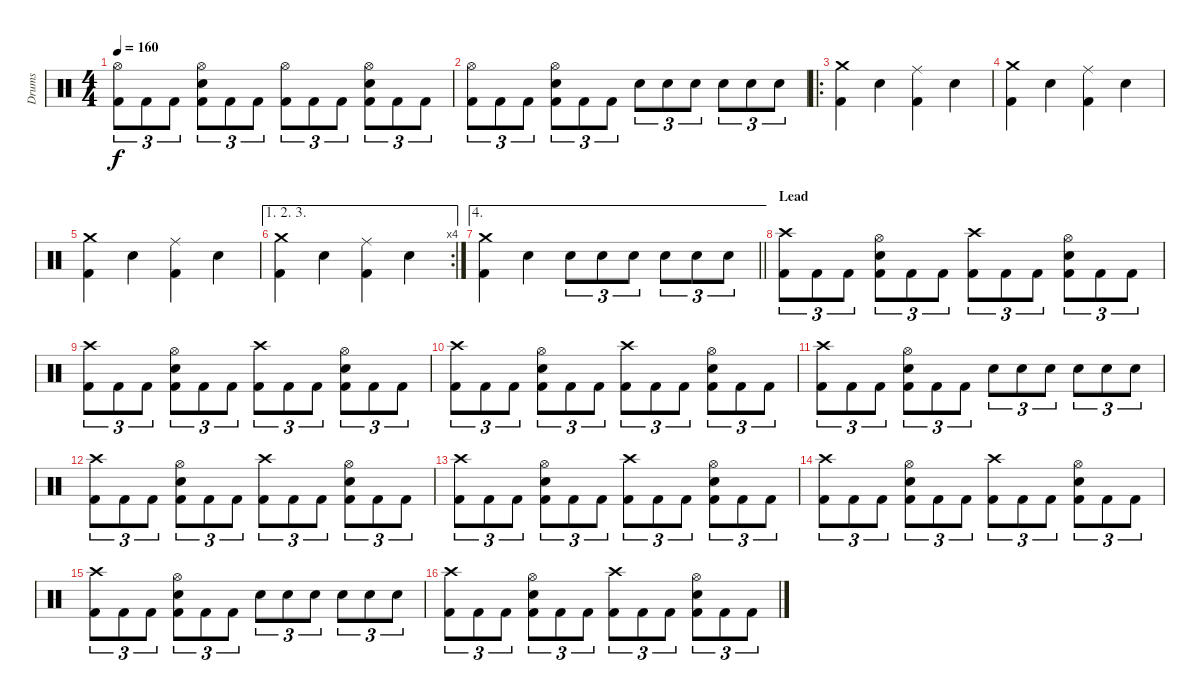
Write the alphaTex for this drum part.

\track ("Drums" "Drums") {instrument percussion}
\staff {score}
\articulation defaults
\ts (4 4)
\tempo 160
\clef neutral
\ks c
("Hi-Hat (open)" "Kick (hit) 2").8{tu (3 2) dy f} "Kick (hit) 2".8{tu (3 2)} "Kick (hit) 2".8{tu (3 2)} ("Hi-Hat (open)" "Snare (hit) 2" "Kick (hit) 2").8{tu (3 2)} "Kick (hit) 2".8{tu (3 2)} "Kick (hit) 2".8{tu (3 2)} ("Hi-Hat (open)" "Kick (hit) 2").8{tu (3 2)} "Kick (hit) 2".8{tu (3 2)} "Kick (hit) 2".8{tu (3 2)} ("Hi-Hat (open)" "Snare (hit) 2" "Kick (hit) 2").8{tu (3 2)} "Kick (hit) 2".8{tu (3 2)} "Kick (hit) 2".8{tu (3 2)} |
("Hi-Hat (open)" "Kick (hit) 2").8{tu (3 2)} "Kick (hit) 2".8{tu (3 2)} "Kick (hit) 2".8{tu (3 2)} ("Hi-Hat (open)" "Snare (hit) 2" "Kick (hit) 2").8{tu (3 2)} "Kick (hit) 2".8{tu (3 2)} "Kick (hit) 2".8{tu (3 2)} "Snare (hit) 2".8{tu (3 2)} "Snare (hit) 2".8{tu (3 2)} "Snare (hit) 2".8{tu (3 2)} "Snare (hit) 2".8{tu (3 2)} "Snare (hit) 2".8{tu (3 2)} "Snare (hit) 2".8{tu (3 2)} |
\ro
("Crash medium (hit)" "Kick (hit) 2").4 "Electric Snare (hit)".4 ("Ride (middle)" "Kick (hit) 2").4 "Electric Snare (hit)".4 |
("Crash medium (hit)" "Kick (hit) 2").4 "Electric Snare (hit)".4 ("Ride (middle)" "Kick (hit) 2").4 "Electric Snare (hit)".4 |
("Crash medium (hit)" "Kick (hit) 2").4 "Electric Snare (hit)".4 ("Ride (middle)" "Kick (hit) 2").4 "Electric Snare (hit)".4 |
\ae (1 2 3)
\rc 4
("Crash medium (hit)" "Kick (hit) 2").4 "Electric Snare (hit)".4 ("Ride (middle)" "Kick (hit) 2").4 "Electric Snare (hit)".4 |
\ae 4
\barLineRight lightlight
("Crash medium (hit)" "Kick (hit) 2").4 "Electric Snare (hit)".4 "Snare (hit) 2".8{tu (3 2)} "Snare (hit) 2".8{tu (3 2)} "Snare (hit) 2".8{tu (3 2)} "Snare (hit) 2".8{tu (3 2)} "Snare (hit) 2".8{tu (3 2)} "Snare (hit) 2".8{tu (3 2)} |
\section ("" "Lead")
("Crash high (hit)" "Kick (hit) 2").8{tu (3 2)} "Kick (hit) 2".8{tu (3 2)} "Kick (hit) 2".8{tu (3 2)} ("Hi-Hat (open)" "Snare (hit) 2" "Kick (hit) 2").8{tu (3 2)} "Kick (hit) 2".8{tu (3 2)} "Kick (hit) 2".8{tu (3 2)} ("Crash high (hit)" "Kick (hit) 2").8{tu (3 2)} "Kick (hit) 2".8{tu (3 2)} "Kick (hit) 2".8{tu (3 2)} ("Hi-Hat (open)" "Snare (hit) 2" "Kick (hit) 2").8{tu (3 2)} "Kick (hit) 2".8{tu (3 2)} "Kick (hit) 2".8{tu (3 2)} |
("Crash high (hit)" "Kick (hit) 2").8{tu (3 2)} "Kick (hit) 2".8{tu (3 2)} "Kick (hit) 2".8{tu (3 2)} ("Hi-Hat (open)" "Snare (hit) 2" "Kick (hit) 2").8{tu (3 2)} "Kick (hit) 2".8{tu (3 2)} "Kick (hit) 2".8{tu (3 2)} ("Crash high (hit)" "Kick (hit) 2").8{tu (3 2)} "Kick (hit) 2".8{tu (3 2)} "Kick (hit) 2".8{tu (3 2)} ("Hi-Hat (open)" "Snare (hit) 2" "Kick (hit) 2").8{tu (3 2)} "Kick (hit) 2".8{tu (3 2)} "Kick (hit) 2".8{tu (3 2)} |
("Crash high (hit)" "Kick (hit) 2").8{tu (3 2)} "Kick (hit) 2".8{tu (3 2)} "Kick (hit) 2".8{tu (3 2)} ("Hi-Hat (open)" "Snare (hit) 2" "Kick (hit) 2").8{tu (3 2)} "Kick (hit) 2".8{tu (3 2)} "Kick (hit) 2".8{tu (3 2)} ("Crash high (hit)" "Kick (hit) 2").8{tu (3 2)} "Kick (hit) 2".8{tu (3 2)} "Kick (hit) 2".8{tu (3 2)} ("Hi-Hat (open)" "Snare (hit) 2" "Kick (hit) 2").8{tu (3 2)} "Kick (hit) 2".8{tu (3 2)} "Kick (hit) 2".8{tu (3 2)} |
("Crash high (hit)" "Kick (hit) 2").8{tu (3 2)} "Kick (hit) 2".8{tu (3 2)} "Kick (hit) 2".8{tu (3 2)} ("Hi-Hat (open)" "Snare (hit) 2" "Kick (hit) 2").8{tu (3 2)} "Kick (hit) 2".8{tu (3 2)} "Kick (hit) 2".8{tu (3 2)} "Snare (hit) 2".8{tu (3 2)} "Snare (hit) 2".8{tu (3 2)} "Snare (hit) 2".8{tu (3 2)} "Snare (hit) 2".8{tu (3 2)} "Snare (hit) 2".8{tu (3 2)} "Snare (hit) 2".8{tu (3 2)} |
("Crash high (hit)" "Kick (hit) 2").8{tu (3 2)} "Kick (hit) 2".8{tu (3 2)} "Kick (hit) 2".8{tu (3 2)} ("Hi-Hat (open)" "Snare (hit) 2" "Kick (hit) 2").8{tu (3 2)} "Kick (hit) 2".8{tu (3 2)} "Kick (hit) 2".8{tu (3 2)} ("Crash high (hit)" "Kick (hit) 2").8{tu (3 2)} "Kick (hit) 2".8{tu (3 2)} "Kick (hit) 2".8{tu (3 2)} ("Hi-Hat (open)" "Snare (hit) 2" "Kick (hit) 2").8{tu (3 2)} "Kick (hit) 2".8{tu (3 2)} "Kick (hit) 2".8{tu (3 2)} |
("Crash high (hit)" "Kick (hit) 2").8{tu (3 2)} "Kick (hit) 2".8{tu (3 2)} "Kick (hit) 2".8{tu (3 2)} ("Hi-Hat (open)" "Snare (hit) 2" "Kick (hit) 2").8{tu (3 2)} "Kick (hit) 2".8{tu (3 2)} "Kick (hit) 2".8{tu (3 2)} ("Crash high (hit)" "Kick (hit) 2").8{tu (3 2)} "Kick (hit) 2".8{tu (3 2)} "Kick (hit) 2".8{tu (3 2)} ("Hi-Hat (open)" "Snare (hit) 2" "Kick (hit) 2").8{tu (3 2)} "Kick (hit) 2".8{tu (3 2)} "Kick (hit) 2".8{tu (3 2)} |
("Crash high (hit)" "Kick (hit) 2").8{tu (3 2)} "Kick (hit) 2".8{tu (3 2)} "Kick (hit) 2".8{tu (3 2)} ("Hi-Hat (open)" "Snare (hit) 2" "Kick (hit) 2").8{tu (3 2)} "Kick (hit) 2".8{tu (3 2)} "Kick (hit) 2".8{tu (3 2)} ("Crash high (hit)" "Kick (hit) 2").8{tu (3 2)} "Kick (hit) 2".8{tu (3 2)} "Kick (hit) 2".8{tu (3 2)} ("Hi-Hat (open)" "Snare (hit) 2" "Kick (hit) 2").8{tu (3 2)} "Kick (hit) 2".8{tu (3 2)} "Kick (hit) 2".8{tu (3 2)} |
("Crash high (hit)" "Kick (hit) 2").8{tu (3 2)} "Kick (hit) 2".8{tu (3 2)} "Kick (hit) 2".8{tu (3 2)} ("Hi-Hat (open)" "Snare (hit) 2" "Kick (hit) 2").8{tu (3 2)} "Kick (hit) 2".8{tu (3 2)} "Kick (hit) 2".8{tu (3 2)} "Snare (hit) 2".8{tu (3 2)} "Snare (hit) 2".8{tu (3 2)} "Snare (hit) 2".8{tu (3 2)} "Snare (hit) 2".8{tu (3 2)} "Snare (hit) 2".8{tu (3 2)} "Snare (hit) 2".8{tu (3 2)} |
("Crash high (hit)" "Kick (hit) 2").8{tu (3 2)} "Kick (hit) 2".8{tu (3 2)} "Kick (hit) 2".8{tu (3 2)} ("Hi-Hat (open)" "Snare (hit) 2" "Kick (hit) 2").8{tu (3 2)} "Kick (hit) 2".8{tu (3 2)} "Kick (hit) 2".8{tu (3 2)} ("Crash high (hit)" "Kick (hit) 2").8{tu (3 2)} "Kick (hit) 2".8{tu (3 2)} "Kick (hit) 2".8{tu (3 2)} ("Hi-Hat (open)" "Snare (hit) 2" "Kick (hit) 2").8{tu (3 2)} "Kick (hit) 2".8{tu (3 2)} "Kick (hit) 2".8{tu (3 2)}
